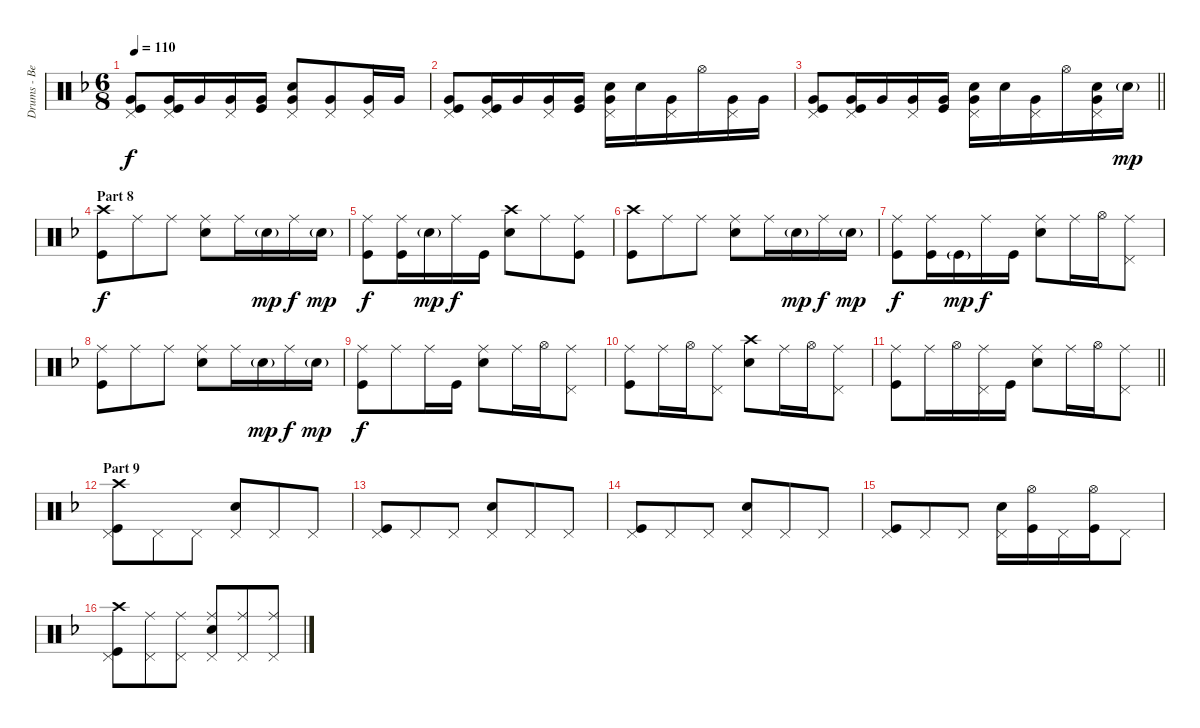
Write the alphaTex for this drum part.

\track ("Drums - Ben Johnston" "Drums - Be") {instrument percussion}
\staff {score}
\articulation defaults
\ts (6 8)
\tempo 110
\clef neutral
\ks dminor
("Very Low Tom (hit)" "Pedal Hi-Hat (hit)" "Kick (hit)").8{dy f} ("Very Low Tom (hit)" "Pedal Hi-Hat (hit)" "Kick (hit)").16 "Very Low Tom (hit)".16 ("Very Low Tom (hit)" "Pedal Hi-Hat (hit)").16 ("Very Low Tom (hit)" "Kick (hit)").16 ("Very Low Tom (hit)" "Pedal Hi-Hat (hit)" "Snare (hit) 2").8 ("Very Low Tom (hit)" "Pedal Hi-Hat (hit)").8 ("Very Low Tom (hit)" "Pedal Hi-Hat (hit)").16 "Very Low Tom (hit)".16 |
("Very Low Tom (hit)" "Pedal Hi-Hat (hit)" "Kick (hit)").8 ("Very Low Tom (hit)" "Pedal Hi-Hat (hit)" "Kick (hit)").16 "Very Low Tom (hit)".16 ("Very Low Tom (hit)" "Pedal Hi-Hat (hit)").16 ("Very Low Tom (hit)" "Kick (hit)").16 ("Very Low Tom (hit)" "Pedal Hi-Hat (hit)" "Snare (hit) 2").16 "Snare (hit) 2".16 ("Very Low Tom (hit)" "Pedal Hi-Hat (hit)").16 "Hi-Hat (open)".16 ("Very Low Tom (hit)" "Pedal Hi-Hat (hit)").16 "Very Low Tom (hit)".16 |
\barLineRight lightlight
("Very Low Tom (hit)" "Pedal Hi-Hat (hit)" "Kick (hit)").8 ("Very Low Tom (hit)" "Pedal Hi-Hat (hit)" "Kick (hit)").16 "Very Low Tom (hit)".16 ("Very Low Tom (hit)" "Pedal Hi-Hat (hit)").16 ("Very Low Tom (hit)" "Kick (hit)").16 ("Very Low Tom (hit)" "Pedal Hi-Hat (hit)" "Snare (hit) 2").16 "Snare (hit) 2".16 ("Very Low Tom (hit)" "Pedal Hi-Hat (hit)").16 "Hi-Hat (open)".16 ("Very Low Tom (hit)" "Pedal Hi-Hat (hit)" "Snare (hit) 2").16 "Snare (hit) 2"{g}.16{dy mp} |
\section ("" "Part 8")
("Crash high (hit)" "Kick (hit)").8{dy f} "Ride (middle)".8 "Ride (middle)".8 ("Ride (middle)" "Snare (hit) 2").8 "Ride (middle)".16 "Snare (hit) 2"{g}.16{dy mp} "Ride (middle)".16{dy f} "Snare (hit) 2"{g}.16{dy mp} |
("Ride (middle)" "Kick (hit)").8{dy f} ("Ride (middle)" "Kick (hit)").16 "Snare (hit) 2"{g}.16{dy mp} "Ride (middle)".16{dy f} "Kick (hit)".16 ("Crash high (hit)" "Snare (hit) 2").8 "Ride (middle)".8 ("Ride (middle)" "Kick (hit)").8 |
("Crash high (hit)" "Kick (hit)").8 "Ride (middle)".8 "Ride (middle)".8 ("Ride (middle)" "Snare (hit) 2").8 "Ride (middle)".16 "Snare (hit) 2"{g}.16{dy mp} "Ride (middle)".16{dy f} "Snare (hit) 2"{g}.16{dy mp} |
("Ride (middle)" "Kick (hit)").8{dy f} ("Ride (middle)" "Kick (hit)").16 "Kick (hit)"{g}.16{dy mp} "Ride (middle)".16{dy f} "Kick (hit)".16 ("Ride (middle)" "Snare (hit) 2").8 "Ride (middle)".16 "Hi-Hat (open)".16 ("Ride (middle)" "Pedal Hi-Hat (hit)").8 |
("Ride (middle)" "Kick (hit)").8 "Ride (middle)".8 "Ride (middle)".8 ("Ride (middle)" "Snare (hit) 2").8 "Ride (middle)".16 "Snare (hit) 2"{g}.16{dy mp} "Ride (middle)".16{dy f} "Snare (hit) 2"{g}.16{dy mp} |
("Ride (middle)" "Kick (hit)").8{dy f} "Ride (middle)".8 "Ride (middle)".16 "Kick (hit)".16 ("Ride (middle)" "Snare (hit) 2").8 "Ride (middle)".16 "Hi-Hat (open)".16 ("Ride (middle)" "Pedal Hi-Hat (hit)").8 |
("Ride (middle)" "Kick (hit)").8 "Ride (middle)".16 "Hi-Hat (open)".16 ("Ride (middle)" "Pedal Hi-Hat (hit)").8 ("Crash high (hit)" "Snare (hit) 2").8 "Ride (middle)".16 "Hi-Hat (open)".16 ("Ride (middle)" "Pedal Hi-Hat (hit)").8 |
\barLineRight lightlight
("Ride (middle)" "Kick (hit)").8 "Ride (middle)".16 "Hi-Hat (open)".16 ("Ride (middle)" "Pedal Hi-Hat (hit)").16 "Kick (hit)".16 ("Ride (middle)" "Snare (hit) 2").8 "Ride (middle)".16 "Hi-Hat (open)".16 ("Ride (middle)" "Pedal Hi-Hat (hit)").8 |
\section ("" "Part 9")
("Crash high (hit)" "Pedal Hi-Hat (hit)" "Kick (hit)").8 "Pedal Hi-Hat (hit)".8 "Pedal Hi-Hat (hit)".8 ("Pedal Hi-Hat (hit)" "Snare (hit) 2").8 "Pedal Hi-Hat (hit)".8 "Pedal Hi-Hat (hit)".8 |
("Pedal Hi-Hat (hit)" "Kick (hit)").8 "Pedal Hi-Hat (hit)".8 "Pedal Hi-Hat (hit)".8 ("Pedal Hi-Hat (hit)" "Snare (hit) 2").8 "Pedal Hi-Hat (hit)".8 "Pedal Hi-Hat (hit)".8 |
("Pedal Hi-Hat (hit)" "Kick (hit)").8 "Pedal Hi-Hat (hit)".8 "Pedal Hi-Hat (hit)".8 ("Pedal Hi-Hat (hit)" "Snare (hit) 2").8 "Pedal Hi-Hat (hit)".8 "Pedal Hi-Hat (hit)".8 |
("Pedal Hi-Hat (hit)" "Kick (hit)").8 "Pedal Hi-Hat (hit)".8 "Pedal Hi-Hat (hit)".8 ("Pedal Hi-Hat (hit)" "Snare (hit) 2").16 ("Hi-Hat (open)" "Kick (hit)").16 "Pedal Hi-Hat (hit)".16 ("Hi-Hat (open)" "Kick (hit)").16 "Pedal Hi-Hat (hit)".8 |
("Crash high (hit)" "Pedal Hi-Hat (hit)" "Kick (hit)").8 ("Ride (middle)" "Pedal Hi-Hat (hit)").8 ("Ride (middle)" "Pedal Hi-Hat (hit)").8 ("Ride (middle)" "Pedal Hi-Hat (hit)" "Snare (hit) 2").8 ("Ride (middle)" "Pedal Hi-Hat (hit)").8 ("Ride (middle)" "Pedal Hi-Hat (hit)").8
